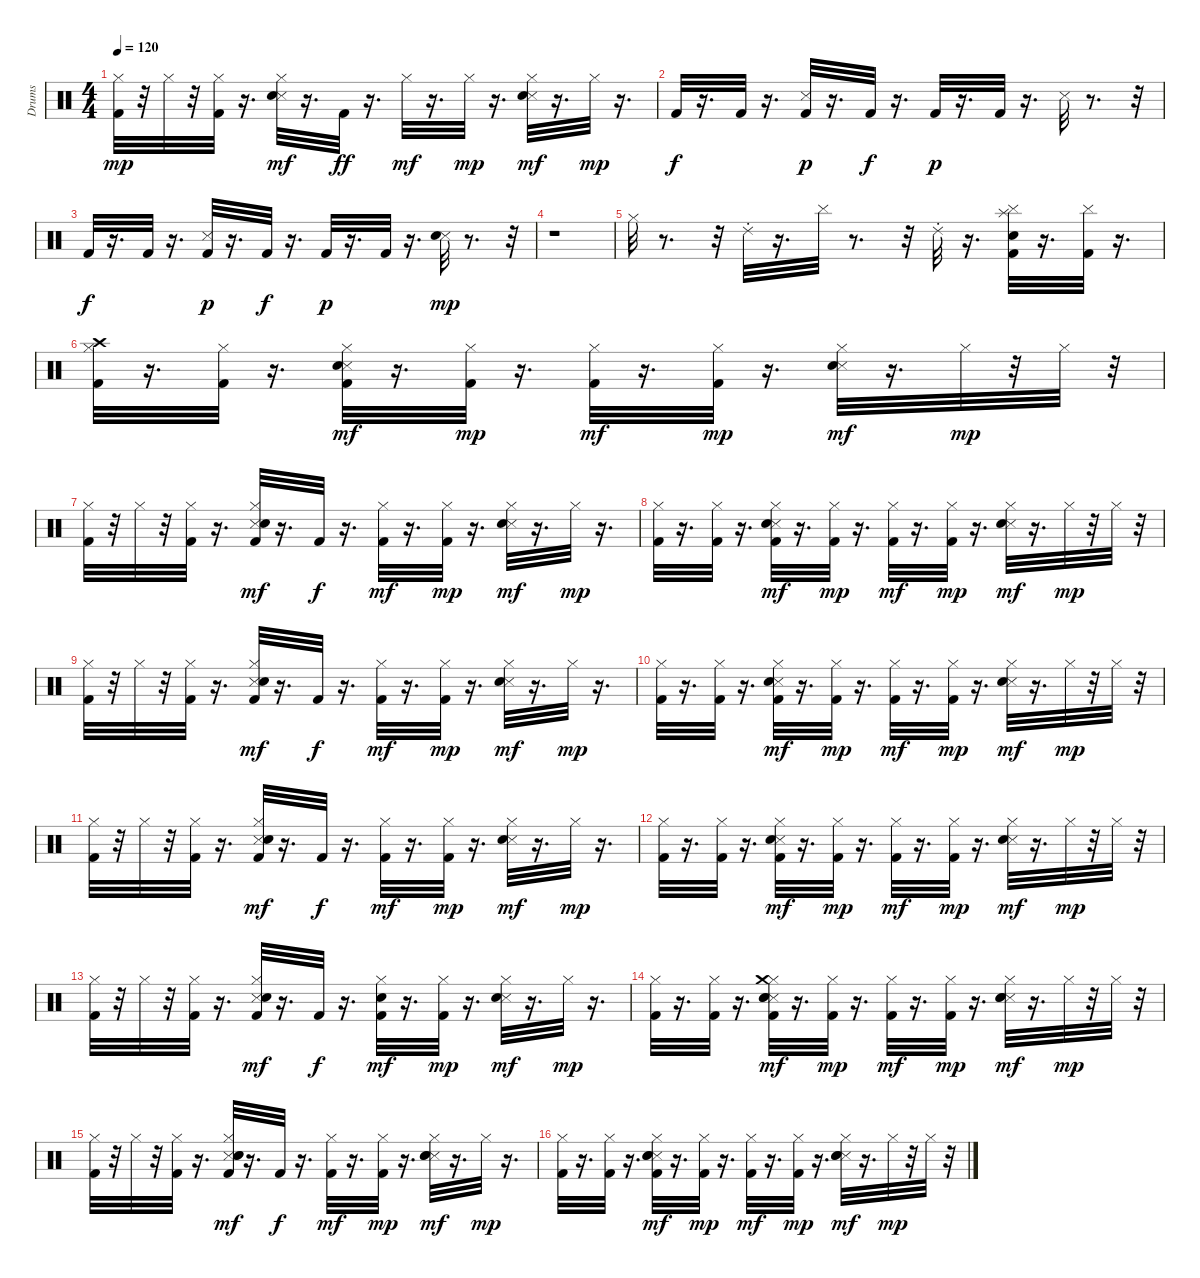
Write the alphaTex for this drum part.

\track ("Drums" "Drums") {instrument percussion}
\staff {score}
\articulation defaults
\ts (4 4)
\tempo 120
\clef neutral
\ks c
("Kick (hit) 2" "Hi-Hat (closed)").32{dy mp} r.32 "Hi-Hat (closed)".32 r.32 ("Kick (hit) 2" "Hi-Hat (closed)").32 r.16{d} ("Metronome (hit)" "Snare (hit) 2" "Hi-Hat (closed)").32{dy mf} r.16{d} "Kick (hit) 2".32{dy ff} r.16{d} "Hi-Hat (closed)".32{dy mf} r.16{d} "Hi-Hat (closed)".32{dy mp} r.16{d} ("Metronome (hit)" "Snare (hit) 2" "Hi-Hat (closed)").32{dy mf} r.16{d} "Hi-Hat (closed)".32{dy mp} r.16{d} |
"Kick (hit) 2".32{dy f} r.16{d} "Kick (hit) 2".32 r.16{d} ("Metronome (hit)" "Kick (hit) 2").32{dy p} r.16{d} "Kick (hit) 2".32{dy f} r.16{d} "Kick (hit) 2".32{dy p} r.16{d} "Kick (hit) 2".32 r.16{d} "Metronome (hit)".32 r.8{d} r.32 |
"Kick (hit) 2".32{dy f} r.16{d} "Kick (hit) 2".32 r.16{d} ("Metronome (hit)" "Kick (hit) 2").32{dy p} r.16{d} "Kick (hit) 2".32{dy f} r.16{d} "Kick (hit) 2".32{dy p} r.16{d} "Kick (hit) 2".32 r.16{d} ("Metronome (hit)" "Hand Clap (hit)").32{dy mp} r.8{d} r.32 |
r.1 |
"Hi-Hat (closed)".32 r.8{d} r.32 "Ride (choke) 2".32 r.16{d} "Cymbal (hit)".32 r.8{d} r.32 "Ride (choke) 2".32 r.16{d} ("Cymbal (hit)" "Kick (hit) 2" "Snare (hit) 2" "Splash (hit)").32 r.16{d} ("Cymbal (hit)" "Kick (hit) 2").32 r.16{d} |
("Kick (hit) 2" "Hi-Hat (closed)" "Crash high (hit)").32 r.16{d} ("Kick (hit) 2" "Hi-Hat (closed)").32 r.16{d} ("Metronome (hit)" "Kick (hit) 2" "Snare (hit) 2" "Hi-Hat (closed)").32{dy mf} r.16{d} ("Kick (hit) 2" "Hi-Hat (closed)").32{dy mp} r.16{d} ("Kick (hit) 2" "Hi-Hat (closed)").32{dy mf} r.16{d} ("Kick (hit) 2" "Hi-Hat (closed)").32{dy mp} r.16{d} ("Metronome (hit)" "Snare (hit) 2" "Hi-Hat (closed)").32{dy mf} r.16{d} "Hi-Hat (closed)".32{dy mp} r.32 "Hi-Hat (closed)".32 r.32 |
("Kick (hit) 2" "Hi-Hat (closed)").32 r.32 "Hi-Hat (closed)".32 r.32 ("Kick (hit) 2" "Hi-Hat (closed)").32 r.16{d} ("Metronome (hit)" "Kick (hit) 2" "Snare (hit) 2" "Hi-Hat (closed)").32{dy mf} r.16{d} "Kick (hit) 2".32{dy f} r.16{d} ("Kick (hit) 2" "Hi-Hat (closed)").32{dy mf} r.16{d} ("Kick (hit) 2" "Hi-Hat (closed)").32{dy mp} r.16{d} ("Metronome (hit)" "Snare (hit) 2" "Hi-Hat (closed)").32{dy mf} r.16{d} "Hi-Hat (closed)".32{dy mp} r.16{d} |
("Kick (hit) 2" "Hi-Hat (closed)").32 r.16{d} ("Kick (hit) 2" "Hi-Hat (closed)").32 r.16{d} ("Metronome (hit)" "Kick (hit) 2" "Snare (hit) 2" "Hi-Hat (closed)").32{dy mf} r.16{d} ("Kick (hit) 2" "Hi-Hat (closed)").32{dy mp} r.16{d} ("Kick (hit) 2" "Hi-Hat (closed)").32{dy mf} r.16{d} ("Kick (hit) 2" "Hi-Hat (closed)").32{dy mp} r.16{d} ("Metronome (hit)" "Snare (hit) 2" "Hi-Hat (closed)").32{dy mf} r.16{d} "Hi-Hat (closed)".32{dy mp} r.32 "Hi-Hat (closed)".32 r.32 |
("Kick (hit) 2" "Hi-Hat (closed)").32 r.32 "Hi-Hat (closed)".32 r.32 ("Kick (hit) 2" "Hi-Hat (closed)").32 r.16{d} ("Metronome (hit)" "Kick (hit) 2" "Snare (hit) 2" "Hi-Hat (closed)").32{dy mf} r.16{d} "Kick (hit) 2".32{dy f} r.16{d} ("Kick (hit) 2" "Hi-Hat (closed)").32{dy mf} r.16{d} ("Kick (hit) 2" "Hi-Hat (closed)").32{dy mp} r.16{d} ("Metronome (hit)" "Snare (hit) 2" "Hi-Hat (closed)").32{dy mf} r.16{d} "Hi-Hat (closed)".32{dy mp} r.16{d} |
("Kick (hit) 2" "Hi-Hat (closed)").32 r.16{d} ("Kick (hit) 2" "Hi-Hat (closed)").32 r.16{d} ("Metronome (hit)" "Kick (hit) 2" "Snare (hit) 2" "Hi-Hat (closed)").32{dy mf} r.16{d} ("Kick (hit) 2" "Hi-Hat (closed)").32{dy mp} r.16{d} ("Kick (hit) 2" "Hi-Hat (closed)").32{dy mf} r.16{d} ("Kick (hit) 2" "Hi-Hat (closed)").32{dy mp} r.16{d} ("Metronome (hit)" "Snare (hit) 2" "Hi-Hat (closed)").32{dy mf} r.16{d} "Hi-Hat (closed)".32{dy mp} r.32 "Hi-Hat (closed)".32 r.32 |
("Kick (hit) 2" "Hi-Hat (closed)").32 r.32 "Hi-Hat (closed)".32 r.32 ("Kick (hit) 2" "Hi-Hat (closed)").32 r.16{d} ("Metronome (hit)" "Kick (hit) 2" "Snare (hit) 2" "Hi-Hat (closed)").32{dy mf} r.16{d} "Kick (hit) 2".32{dy f} r.16{d} ("Kick (hit) 2" "Hi-Hat (closed)").32{dy mf} r.16{d} ("Kick (hit) 2" "Hi-Hat (closed)").32{dy mp} r.16{d} ("Metronome (hit)" "Snare (hit) 2" "Hi-Hat (closed)").32{dy mf} r.16{d} "Hi-Hat (closed)".32{dy mp} r.16{d} |
("Kick (hit) 2" "Hi-Hat (closed)").32 r.16{d} ("Kick (hit) 2" "Hi-Hat (closed)").32 r.16{d} ("Metronome (hit)" "Kick (hit) 2" "Snare (hit) 2" "Hi-Hat (closed)").32{dy mf} r.16{d} ("Kick (hit) 2" "Hi-Hat (closed)").32{dy mp} r.16{d} ("Kick (hit) 2" "Hi-Hat (closed)").32{dy mf} r.16{d} ("Kick (hit) 2" "Hi-Hat (closed)").32{dy mp} r.16{d} ("Metronome (hit)" "Snare (hit) 2" "Hi-Hat (closed)").32{dy mf} r.16{d} "Hi-Hat (closed)".32{dy mp} r.32 "Hi-Hat (closed)".32 r.32 |
("Kick (hit) 2" "Hi-Hat (closed)").32 r.32 "Hi-Hat (closed)".32 r.32 ("Kick (hit) 2" "Hi-Hat (closed)").32 r.16{d} ("Metronome (hit)" "Kick (hit) 2" "Snare (hit) 2" "Hi-Hat (closed)").32{dy mf} r.16{d} "Kick (hit) 2".32{dy f} r.16{d} ("Kick (hit) 2" "Snare (hit) 2" "Hi-Hat (closed)").32{dy mf} r.16{d} ("Kick (hit) 2" "Hi-Hat (closed)").32{dy mp} r.16{d} ("Metronome (hit)" "Snare (hit) 2" "Hi-Hat (closed)").32{dy mf} r.16{d} "Hi-Hat (closed)".32{dy mp} r.16{d} |
("Kick (hit) 2" "Hi-Hat (closed)").32 r.16{d} ("Kick (hit) 2" "Hi-Hat (closed)").32 r.16{d} ("Metronome (hit)" "Kick (hit) 2" "Snare (hit) 2" "Hand Clap (hit)" "Hi-Hat (closed)" "Crash medium (hit)").32{dy mf} r.16{d} ("Kick (hit) 2" "Hi-Hat (closed)").32{dy mp} r.16{d} ("Kick (hit) 2" "Hi-Hat (closed)").32{dy mf} r.16{d} ("Kick (hit) 2" "Hi-Hat (closed)").32{dy mp} r.16{d} ("Metronome (hit)" "Snare (hit) 2" "Hand Clap (hit)" "Hi-Hat (closed)").32{dy mf} r.16{d} "Hi-Hat (closed)".32{dy mp} r.32 "Hi-Hat (closed)".32 r.32 |
("Kick (hit) 2" "Hi-Hat (closed)").32 r.32 "Hi-Hat (closed)".32 r.32 ("Kick (hit) 2" "Hi-Hat (closed)").32 r.16{d} ("Metronome (hit)" "Kick (hit) 2" "Snare (hit) 2" "Hand Clap (hit)" "Hi-Hat (closed)").32{dy mf} r.16{d} "Kick (hit) 2".32{dy f} r.16{d} ("Kick (hit) 2" "Hi-Hat (closed)").32{dy mf} r.16{d} ("Kick (hit) 2" "Hi-Hat (closed)").32{dy mp} r.16{d} ("Metronome (hit)" "Snare (hit) 2" "Hand Clap (hit)" "Hi-Hat (closed)").32{dy mf} r.16{d} "Hi-Hat (closed)".32{dy mp} r.16{d} |
("Kick (hit) 2" "Hi-Hat (closed)").32 r.16{d} ("Kick (hit) 2" "Hi-Hat (closed)").32 r.16{d} ("Metronome (hit)" "Kick (hit) 2" "Snare (hit) 2" "Hand Clap (hit)" "Hi-Hat (closed)").32{dy mf} r.16{d} ("Kick (hit) 2" "Hi-Hat (closed)").32{dy mp} r.16{d} ("Kick (hit) 2" "Hi-Hat (closed)").32{dy mf} r.16{d} ("Kick (hit) 2" "Hi-Hat (closed)").32{dy mp} r.16{d} ("Metronome (hit)" "Snare (hit) 2" "Hand Clap (hit)" "Hi-Hat (closed)").32{dy mf} r.16{d} "Hi-Hat (closed)".32{dy mp} r.32 "Hi-Hat (closed)".32 r.32
